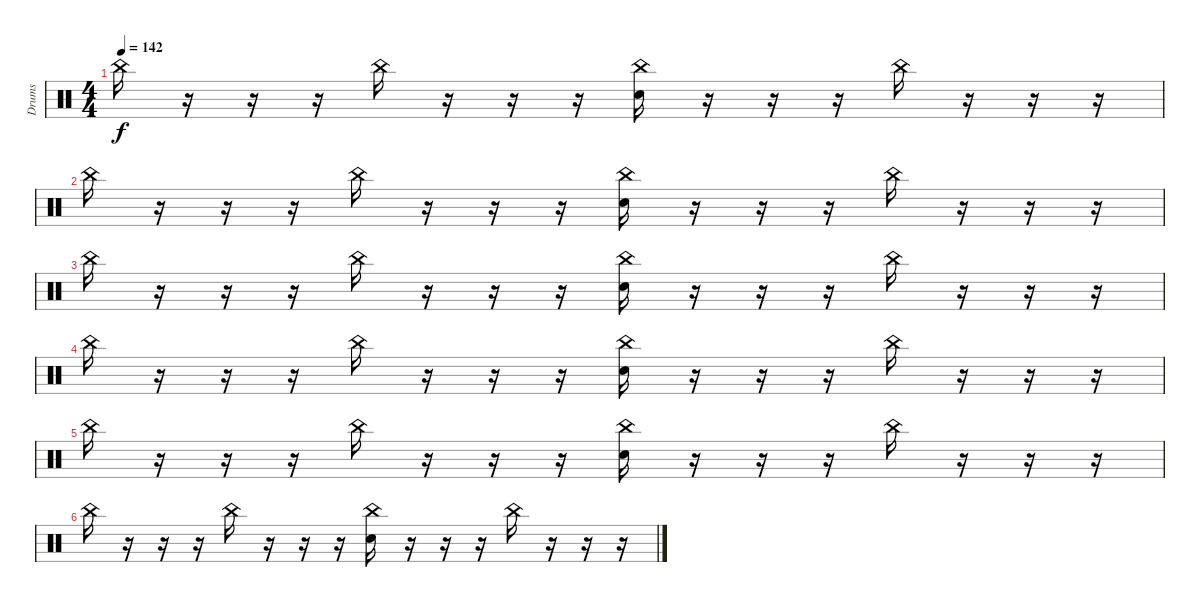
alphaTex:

\track ("Drums" "Drums") {instrument percussion}
\staff
\articulation defaults
\ts (4 4)
\tempo 142
\clef neutral
\ks c "China (hit)".16{dy f}
r.16 r.16 r.16 "China (hit)".16 r.16 r.16 r.16 ("China (hit)" "Electric Snare (hit)").16 r.16 r.16 r.16 "China (hit)".16 r.16 r.16 r.16 |
"China (hit)".16 r.16 r.16 r.16 "China (hit)".16 r.16 r.16 r.16 ("China (hit)" "Electric Snare (hit)").16 r.16 r.16 r.16 "China (hit)".16 r.16 r.16 r.16 |
"China (hit)".16 r.16 r.16 r.16 "China (hit)".16 r.16 r.16 r.16 ("China (hit)" "Electric Snare (hit)").16 r.16 r.16 r.16 "China (hit)".16 r.16 r.16 r.16 |
"China (hit)".16 r.16 r.16 r.16 "China (hit)".16 r.16 r.16 r.16 ("China (hit)" "Electric Snare (hit)").16 r.16 r.16 r.16 "China (hit)".16 r.16 r.16 r.16 |
"China (hit)".16 r.16 r.16 r.16 "China (hit)".16 r.16 r.16 r.16 ("China (hit)" "Electric Snare (hit)").16 r.16 r.16 r.16 "China (hit)".16 r.16 r.16 r.16 |
"China (hit)".16 r.16 r.16 r.16 "China (hit)".16 r.16 r.16 r.16 ("China (hit)" "Electric Snare (hit)").16 r.16 r.16 r.16 "China (hit)".16 r.16 r.16 r.16
